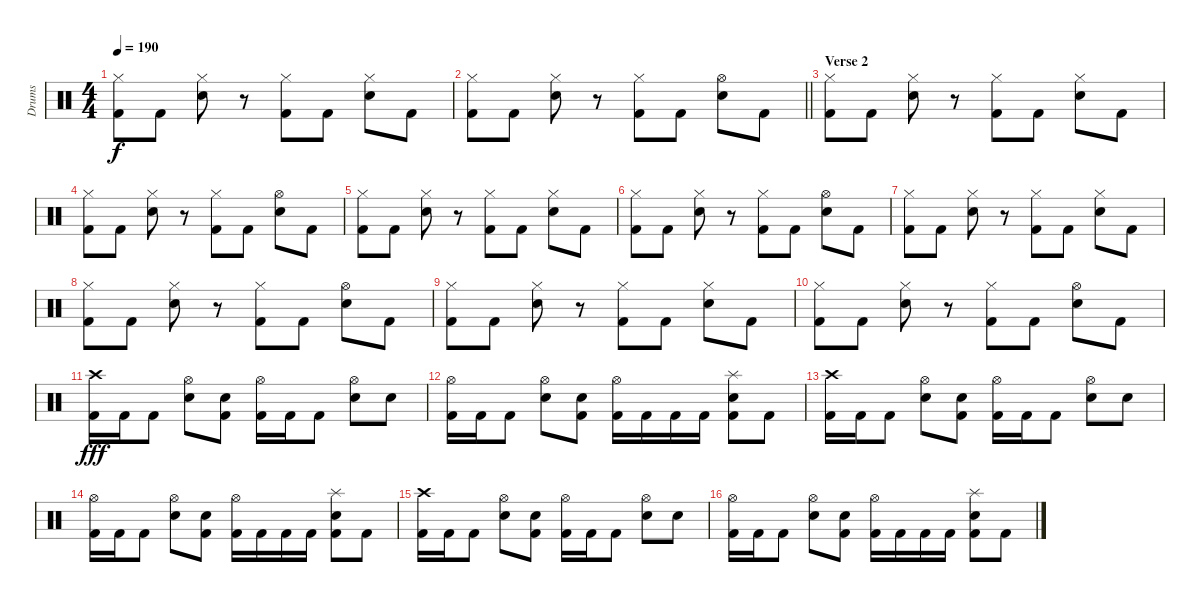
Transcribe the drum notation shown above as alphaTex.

\track ("Drums" "Drums") {instrument percussion}
\staff {score}
\articulation defaults
\ts (4 4)
\tempo 190
\clef neutral
\ks c
("Hi-Hat (closed)" "Kick (hit) 2").8{dy f} "Kick (hit) 2".8 ("Hi-Hat (closed)" "Electric Snare (hit)").8 r.8 ("Hi-Hat (closed)" "Kick (hit) 2").8 "Kick (hit) 2".8 ("Hi-Hat (closed)" "Electric Snare (hit)").8 "Kick (hit) 2".8 |
\barLineRight lightlight
("Hi-Hat (closed)" "Kick (hit) 2").8 "Kick (hit) 2".8 ("Hi-Hat (closed)" "Electric Snare (hit)").8 r.8 ("Hi-Hat (closed)" "Kick (hit) 2").8 "Kick (hit) 2".8 ("Hi-Hat (open)" "Electric Snare (hit)").8 "Kick (hit) 2".8 |
\section ("" "Verse 2")
("Hi-Hat (closed)" "Kick (hit) 2").8 "Kick (hit) 2".8 ("Hi-Hat (closed)" "Electric Snare (hit)").8 r.8 ("Hi-Hat (closed)" "Kick (hit) 2").8 "Kick (hit) 2".8 ("Hi-Hat (closed)" "Electric Snare (hit)").8 "Kick (hit) 2".8 |
("Hi-Hat (closed)" "Kick (hit) 2").8 "Kick (hit) 2".8 ("Hi-Hat (closed)" "Electric Snare (hit)").8 r.8 ("Hi-Hat (closed)" "Kick (hit) 2").8 "Kick (hit) 2".8 ("Hi-Hat (open)" "Electric Snare (hit)").8 "Kick (hit) 2".8 |
("Hi-Hat (closed)" "Kick (hit) 2").8 "Kick (hit) 2".8 ("Hi-Hat (closed)" "Electric Snare (hit)").8 r.8 ("Hi-Hat (closed)" "Kick (hit) 2").8 "Kick (hit) 2".8 ("Hi-Hat (closed)" "Electric Snare (hit)").8 "Kick (hit) 2".8 |
("Hi-Hat (closed)" "Kick (hit) 2").8 "Kick (hit) 2".8 ("Hi-Hat (closed)" "Electric Snare (hit)").8 r.8 ("Hi-Hat (closed)" "Kick (hit) 2").8 "Kick (hit) 2".8 ("Hi-Hat (open)" "Electric Snare (hit)").8 "Kick (hit) 2".8 |
("Hi-Hat (closed)" "Kick (hit) 2").8 "Kick (hit) 2".8 ("Hi-Hat (closed)" "Electric Snare (hit)").8 r.8 ("Hi-Hat (closed)" "Kick (hit) 2").8 "Kick (hit) 2".8 ("Hi-Hat (closed)" "Electric Snare (hit)").8 "Kick (hit) 2".8 |
("Hi-Hat (closed)" "Kick (hit) 2").8 "Kick (hit) 2".8 ("Hi-Hat (closed)" "Electric Snare (hit)").8 r.8 ("Hi-Hat (closed)" "Kick (hit) 2").8 "Kick (hit) 2".8 ("Hi-Hat (open)" "Electric Snare (hit)").8 "Kick (hit) 2".8 |
("Hi-Hat (closed)" "Kick (hit) 2").8 "Kick (hit) 2".8 ("Hi-Hat (closed)" "Electric Snare (hit)").8 r.8 ("Hi-Hat (closed)" "Kick (hit) 2").8 "Kick (hit) 2".8 ("Hi-Hat (closed)" "Electric Snare (hit)").8 "Kick (hit) 2".8 |
("Hi-Hat (closed)" "Kick (hit) 2").8 "Kick (hit) 2".8 ("Hi-Hat (closed)" "Electric Snare (hit)").8 r.8 ("Hi-Hat (closed)" "Kick (hit) 2").8 "Kick (hit) 2".8 ("Hi-Hat (open)" "Electric Snare (hit)").8 "Kick (hit) 2".8 |
("Crash high (hit)" "Kick (hit) 2").16{dy fff} "Kick (hit) 2".16 "Kick (hit) 2".8 ("Hi-Hat (open)" "Electric Snare (hit)").8 ("Electric Snare (hit)" "Kick (hit) 2").8 ("Hi-Hat (open)" "Kick (hit) 2").16 "Kick (hit) 2".16 "Kick (hit) 2".8 ("Hi-Hat (open)" "Electric Snare (hit)").8 "Electric Snare (hit)".8 |
("Hi-Hat (open)" "Kick (hit) 2").16 "Kick (hit) 2".16 "Kick (hit) 2".8 ("Hi-Hat (open)" "Electric Snare (hit)").8 ("Electric Snare (hit)" "Kick (hit) 2").8 ("Hi-Hat (open)" "Kick (hit) 2").16 "Kick (hit) 2".16 "Kick (hit) 2".16 "Kick (hit) 2".16 ("Splash (hit)" "Electric Snare (hit)" "Kick (hit) 2").8 "Kick (hit) 2".8 |
("Crash high (hit)" "Kick (hit) 2").16 "Kick (hit) 2".16 "Kick (hit) 2".8 ("Hi-Hat (open)" "Electric Snare (hit)").8 ("Electric Snare (hit)" "Kick (hit) 2").8 ("Hi-Hat (open)" "Kick (hit) 2").16 "Kick (hit) 2".16 "Kick (hit) 2".8 ("Hi-Hat (open)" "Electric Snare (hit)").8 "Electric Snare (hit)".8 |
("Hi-Hat (open)" "Kick (hit) 2").16 "Kick (hit) 2".16 "Kick (hit) 2".8 ("Hi-Hat (open)" "Electric Snare (hit)").8 ("Electric Snare (hit)" "Kick (hit) 2").8 ("Hi-Hat (open)" "Kick (hit) 2").16 "Kick (hit) 2".16 "Kick (hit) 2".16 "Kick (hit) 2".16 ("Splash (hit)" "Electric Snare (hit)" "Kick (hit) 2").8 "Kick (hit) 2".8 |
("Crash high (hit)" "Kick (hit) 2").16 "Kick (hit) 2".16 "Kick (hit) 2".8 ("Hi-Hat (open)" "Electric Snare (hit)").8 ("Electric Snare (hit)" "Kick (hit) 2").8 ("Hi-Hat (open)" "Kick (hit) 2").16 "Kick (hit) 2".16 "Kick (hit) 2".8 ("Hi-Hat (open)" "Electric Snare (hit)").8 "Electric Snare (hit)".8 |
("Hi-Hat (open)" "Kick (hit) 2").16 "Kick (hit) 2".16 "Kick (hit) 2".8 ("Hi-Hat (open)" "Electric Snare (hit)").8 ("Electric Snare (hit)" "Kick (hit) 2").8 ("Hi-Hat (open)" "Kick (hit) 2").16 "Kick (hit) 2".16 "Kick (hit) 2".16 "Kick (hit) 2".16 ("Splash (hit)" "Electric Snare (hit)" "Kick (hit) 2").8 "Kick (hit) 2".8
